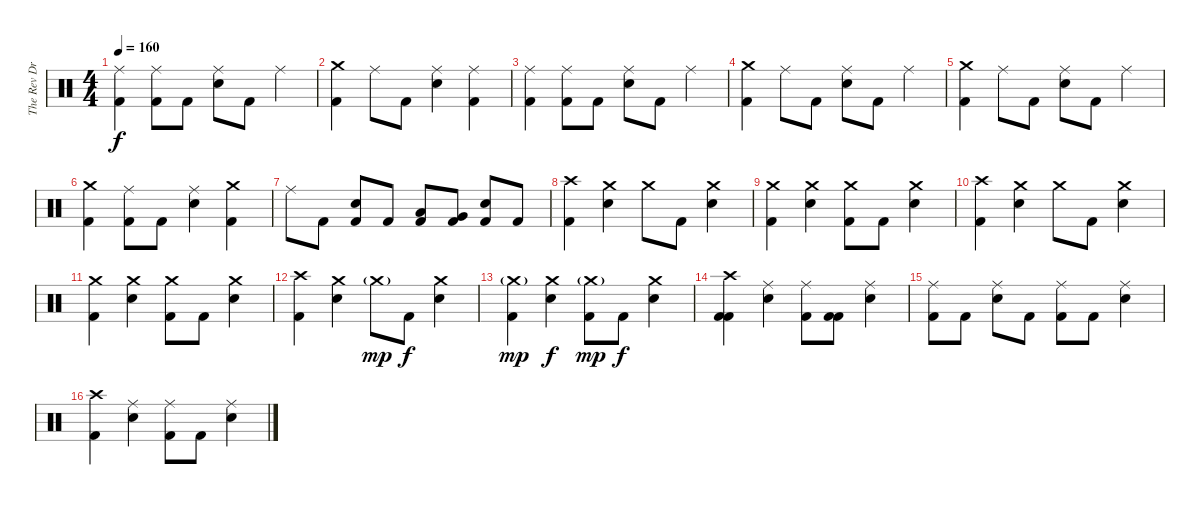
\track ("The Rev Drum" "The Rev Dr") {instrument percussion}
\staff {score}
\articulation defaults
\ts (4 4)
\tempo 160
\clef neutral
\ks c
("Ride (middle)" "Kick (hit) 2").4{dy f} ("Ride (middle)" "Kick (hit) 2").8 "Kick (hit) 2".8 ("Ride (middle)" "Electric Snare (hit)").8 "Kick (hit) 2".8 "Ride (middle)".4 |
("Crash medium (hit)" "Kick (hit) 2").4 "Ride (middle)".8 "Kick (hit) 2".8 ("Ride (middle)" "Electric Snare (hit)").4 ("Ride (middle)" "Kick (hit) 2").4 |
("Ride (middle)" "Kick (hit) 2").4 ("Ride (middle)" "Kick (hit) 2").8 "Kick (hit) 2".8 ("Ride (middle)" "Electric Snare (hit)").8 "Kick (hit) 2".8 "Ride (middle)".4 |
("Crash medium (hit)" "Kick (hit) 2").4 "Ride (middle)".8 "Kick (hit) 2".8 ("Ride (middle)" "Electric Snare (hit)").8 "Kick (hit) 2".8 "Ride (middle)".4 |
("Crash medium (hit)" "Kick (hit) 2").4 "Ride (middle)".8 "Kick (hit) 2".8 ("Ride (middle)" "Electric Snare (hit)").8 "Kick (hit) 2".8 "Ride (middle)".4 |
("Crash medium (hit)" "Kick (hit) 2").4 ("Ride (middle)" "Kick (hit) 2").8 "Kick (hit) 2".8 ("Ride (middle)" "Electric Snare (hit)").4 ("Crash medium (hit)" "Kick (hit) 2").4 |
"Ride (middle)".8 "Kick (hit) 2".8 ("Electric Snare (hit)" "Kick (hit) 2").8 "Kick (hit) 2".8 ("Low Tom (hit)" "Kick (hit) 2").8 ("Very Low Tom (hit)" "Kick (hit) 2").8 ("Electric Snare (hit)" "Kick (hit) 2").8 "Kick (hit) 2".8 |
("Crash high (hit)" "Kick (hit) 2").4 ("Crash medium (hit)" "Electric Snare (hit)").4 "Crash medium (hit)".8 "Kick (hit) 2".8 ("Crash medium (hit)" "Electric Snare (hit)").4 |
("Crash medium (hit)" "Kick (hit) 2").4 ("Crash medium (hit)" "Electric Snare (hit)").4 ("Crash medium (hit)" "Kick (hit) 2").8 "Kick (hit) 2".8 ("Crash medium (hit)" "Electric Snare (hit)").4 |
("Crash high (hit)" "Kick (hit) 2").4 ("Crash medium (hit)" "Electric Snare (hit)").4 "Crash medium (hit)".8 "Kick (hit) 2".8 ("Crash medium (hit)" "Electric Snare (hit)").4 |
("Crash medium (hit)" "Kick (hit) 2").4 ("Crash medium (hit)" "Electric Snare (hit)").4 ("Crash medium (hit)" "Kick (hit) 2").8 "Kick (hit) 2".8 ("Crash medium (hit)" "Electric Snare (hit)").4 |
("Crash high (hit)" "Kick (hit) 2").4 ("Crash medium (hit)" "Electric Snare (hit)").4 "Crash medium (hit)"{g}.8{dy mp} "Kick (hit) 2".8{dy f} ("Crash medium (hit)" "Electric Snare (hit)").4 |
("Crash medium (hit)"{g} "Kick (hit) 2").4{dy mp} ("Crash medium (hit)" "Electric Snare (hit)").4{dy f} ("Crash medium (hit)"{g} "Kick (hit) 2").8{dy mp} "Kick (hit) 2".8{dy f} ("Crash medium (hit)" "Electric Snare (hit)").4 |
("Crash high (hit)" "Kick (hit) 2" "Kick (hit) 2").4 ("Ride (middle)" "Electric Snare (hit)").4 ("Ride (middle)" "Kick (hit) 2").8 ("Kick (hit) 2" "Kick (hit) 2").8 ("Ride (middle)" "Electric Snare (hit)").4 |
("Ride (middle)" "Kick (hit) 2").8 "Kick (hit) 2".8 ("Ride (middle)" "Electric Snare (hit)").8 "Kick (hit) 2".8 ("Ride (middle)" "Kick (hit) 2").8 "Kick (hit) 2".8 ("Ride (middle)" "Electric Snare (hit)").4 |
("Crash high (hit)" "Kick (hit) 2").4 ("Ride (middle)" "Electric Snare (hit)").4 ("Ride (middle)" "Kick (hit) 2").8 "Kick (hit) 2".8 ("Ride (middle)" "Electric Snare (hit)").4
